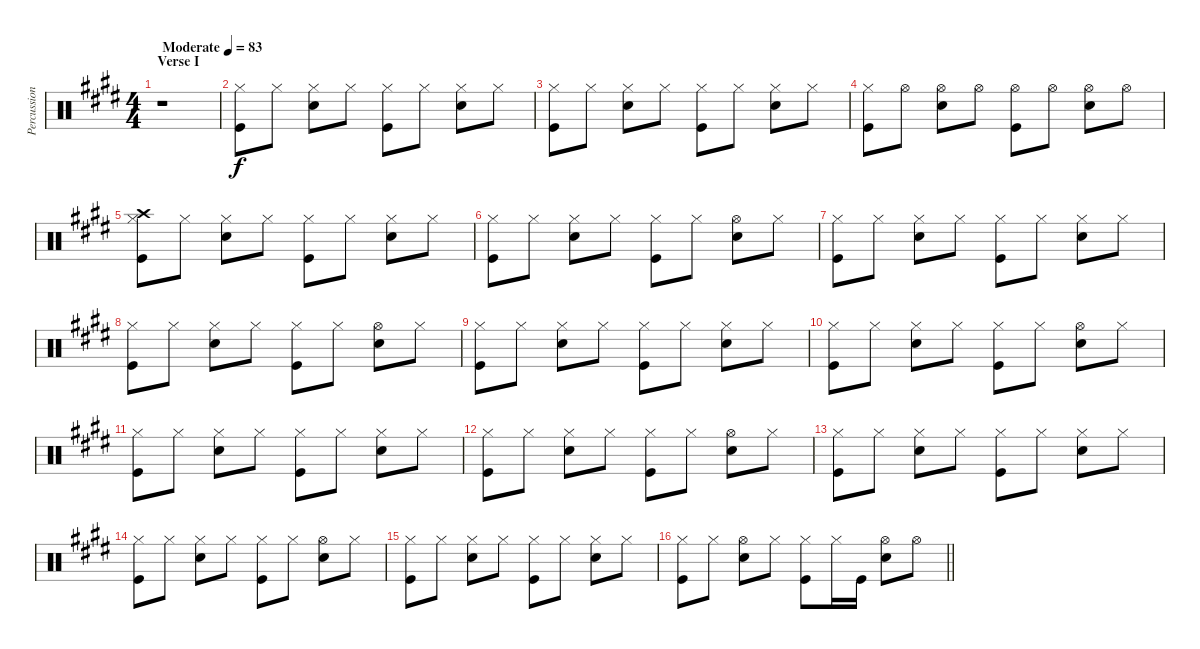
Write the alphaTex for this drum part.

\track ("Percussion" "Percussion") {instrument percussion}
\staff {score}
\articulation defaults
\ts (4 4)
\section ("" "Verse I")
\tempo (83 "Moderate")
\clef neutral
\ks e
r.1{dy f} |
("Hi-Hat (closed)" "Kick (hit)").8 "Hi-Hat (closed)".8 ("Hi-Hat (closed)" "Electric Snare (hit)").8 "Hi-Hat (closed)".8 ("Hi-Hat (closed)" "Kick (hit)").8 "Hi-Hat (closed)".8 ("Hi-Hat (closed)" "Electric Snare (hit)").8 "Hi-Hat (closed)".8 |
("Hi-Hat (closed)" "Kick (hit)").8 "Hi-Hat (closed)".8 ("Hi-Hat (closed)" "Electric Snare (hit)").8 "Hi-Hat (closed)".8 ("Hi-Hat (closed)" "Kick (hit)").8 "Hi-Hat (closed)".8 ("Hi-Hat (closed)" "Electric Snare (hit)").8 "Hi-Hat (closed)".8 |
("Hi-Hat (closed)" "Kick (hit)").8 "Hi-Hat (open)".8 ("Hi-Hat (open)" "Electric Snare (hit)").8 "Hi-Hat (open)".8 ("Hi-Hat (open)" "Kick (hit)").8 "Hi-Hat (open)".8 ("Hi-Hat (open)" "Electric Snare (hit)").8 "Hi-Hat (open)".8 |
("Crash high (hit)" "Hi-Hat (closed)" "Kick (hit)").8 "Hi-Hat (closed)".8 ("Hi-Hat (closed)" "Electric Snare (hit)").8 "Hi-Hat (closed)".8 ("Hi-Hat (closed)" "Kick (hit)").8 "Hi-Hat (closed)".8 ("Hi-Hat (closed)" "Electric Snare (hit)").8 "Hi-Hat (closed)".8 |
("Hi-Hat (closed)" "Kick (hit)").8 "Hi-Hat (closed)".8 ("Hi-Hat (closed)" "Electric Snare (hit)").8 "Hi-Hat (closed)".8 ("Hi-Hat (closed)" "Kick (hit)").8 "Hi-Hat (closed)".8 ("Hi-Hat (open)" "Electric Snare (hit)").8 "Hi-Hat (closed)".8 |
("Hi-Hat (closed)" "Kick (hit)").8 "Hi-Hat (closed)".8 ("Hi-Hat (closed)" "Electric Snare (hit)").8 "Hi-Hat (closed)".8 ("Hi-Hat (closed)" "Kick (hit)").8 "Hi-Hat (closed)".8 ("Hi-Hat (closed)" "Electric Snare (hit)").8 "Hi-Hat (closed)".8 |
("Hi-Hat (closed)" "Kick (hit)").8 "Hi-Hat (closed)".8 ("Hi-Hat (closed)" "Electric Snare (hit)").8 "Hi-Hat (closed)".8 ("Hi-Hat (closed)" "Kick (hit)").8 "Hi-Hat (closed)".8 ("Hi-Hat (open)" "Electric Snare (hit)").8 "Hi-Hat (closed)".8 |
("Hi-Hat (closed)" "Kick (hit)").8 "Hi-Hat (closed)".8 ("Hi-Hat (closed)" "Electric Snare (hit)").8 "Hi-Hat (closed)".8 ("Hi-Hat (closed)" "Kick (hit)").8 "Hi-Hat (closed)".8 ("Hi-Hat (closed)" "Electric Snare (hit)").8 "Hi-Hat (closed)".8 |
("Hi-Hat (closed)" "Kick (hit)").8 "Hi-Hat (closed)".8 ("Hi-Hat (closed)" "Electric Snare (hit)").8 "Hi-Hat (closed)".8 ("Hi-Hat (closed)" "Kick (hit)").8 "Hi-Hat (closed)".8 ("Hi-Hat (open)" "Electric Snare (hit)").8 "Hi-Hat (closed)".8 |
("Hi-Hat (closed)" "Kick (hit)").8 "Hi-Hat (closed)".8 ("Hi-Hat (closed)" "Electric Snare (hit)").8 "Hi-Hat (closed)".8 ("Hi-Hat (closed)" "Kick (hit)").8 "Hi-Hat (closed)".8 ("Hi-Hat (closed)" "Electric Snare (hit)").8 "Hi-Hat (closed)".8 |
("Hi-Hat (closed)" "Kick (hit)").8 "Hi-Hat (closed)".8 ("Hi-Hat (closed)" "Electric Snare (hit)").8 "Hi-Hat (closed)".8 ("Hi-Hat (closed)" "Kick (hit)").8 "Hi-Hat (closed)".8 ("Hi-Hat (open)" "Electric Snare (hit)").8 "Hi-Hat (closed)".8 |
("Hi-Hat (closed)" "Kick (hit)").8 "Hi-Hat (closed)".8 ("Hi-Hat (closed)" "Electric Snare (hit)").8 "Hi-Hat (closed)".8 ("Hi-Hat (closed)" "Kick (hit)").8 "Hi-Hat (closed)".8 ("Hi-Hat (closed)" "Electric Snare (hit)").8 "Hi-Hat (closed)".8 |
("Hi-Hat (closed)" "Kick (hit)").8 "Hi-Hat (closed)".8 ("Hi-Hat (closed)" "Electric Snare (hit)").8 "Hi-Hat (closed)".8 ("Hi-Hat (closed)" "Kick (hit)").8 "Hi-Hat (closed)".8 ("Hi-Hat (open)" "Electric Snare (hit)").8 "Hi-Hat (closed)".8 |
("Hi-Hat (closed)" "Kick (hit)").8 "Hi-Hat (closed)".8 ("Hi-Hat (closed)" "Electric Snare (hit)").8 "Hi-Hat (closed)".8 ("Hi-Hat (closed)" "Kick (hit)").8 "Hi-Hat (closed)".8 ("Hi-Hat (closed)" "Electric Snare (hit)").8 "Hi-Hat (closed)".8 |
\barLineRight lightlight
("Hi-Hat (closed)" "Kick (hit)").8 "Hi-Hat (closed)".8 ("Hi-Hat (open)" "Electric Snare (hit)").8 "Hi-Hat (closed)".8 ("Hi-Hat (closed)" "Kick (hit)").8 "Hi-Hat (closed)".16 "Kick (hit)".16 ("Hi-Hat (open)" "Electric Snare (hit)").8 "Hi-Hat (open)".8
